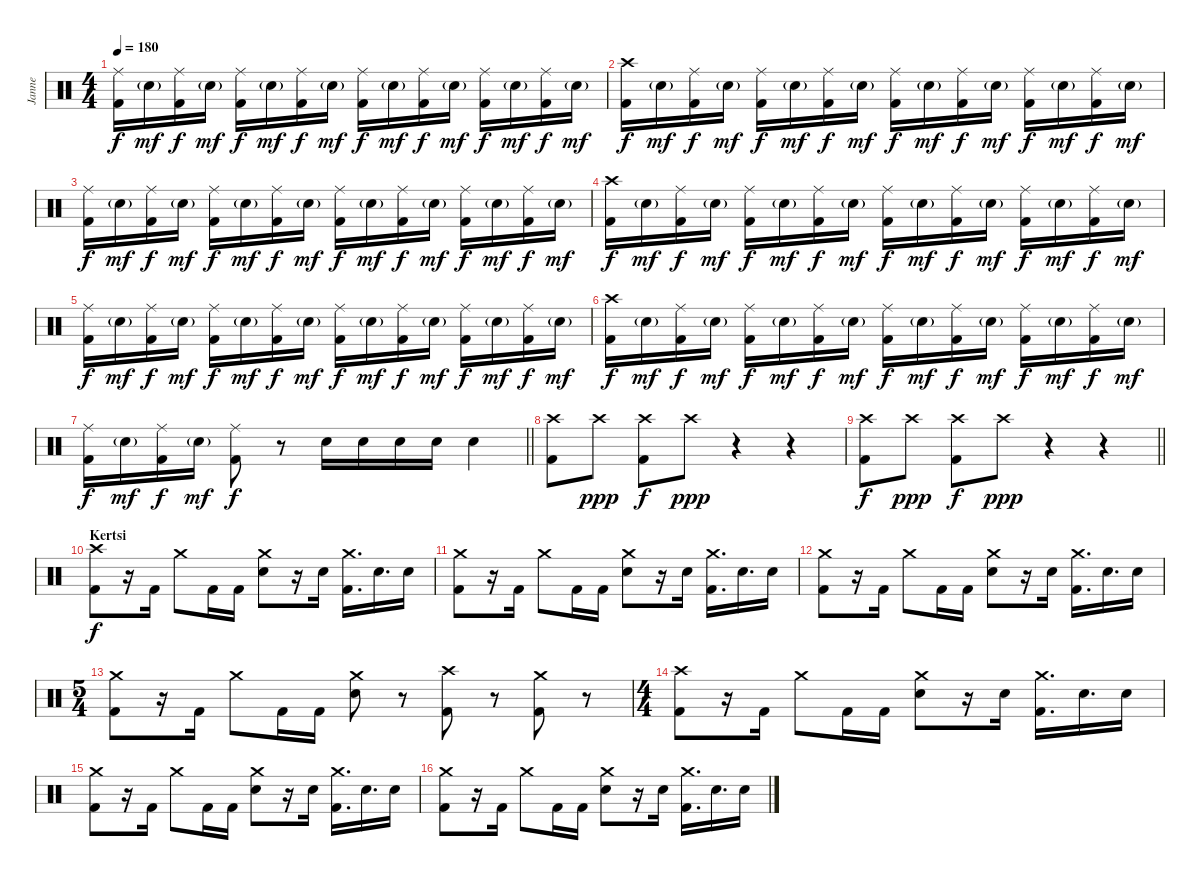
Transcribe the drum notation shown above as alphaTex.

\track ("Janne" "Janne") {instrument percussion}
\staff {score}
\articulation defaults
\ts (4 4)
\tempo 180
\clef neutral
\ks c
("Ride (middle)" "Kick (hit) 2").16{dy f} "Electric Snare (hit)"{g}.16{dy mf} ("Ride (middle)" "Kick (hit) 2").16{dy f} "Electric Snare (hit)"{g}.16{dy mf} ("Ride (middle)" "Kick (hit) 2").16{dy f} "Electric Snare (hit)"{g}.16{dy mf} ("Ride (middle)" "Kick (hit) 2").16{dy f} "Electric Snare (hit)"{g}.16{dy mf} ("Ride (middle)" "Kick (hit) 2").16{dy f} "Electric Snare (hit)"{g}.16{dy mf} ("Ride (middle)" "Kick (hit) 2").16{dy f} "Electric Snare (hit)"{g}.16{dy mf} ("Ride (middle)" "Kick (hit) 2").16{dy f} "Electric Snare (hit)"{g}.16{dy mf} ("Ride (middle)" "Kick (hit) 2").16{dy f} "Electric Snare (hit)"{g}.16{dy mf} |
("Crash high (hit)" "Kick (hit) 2").16{dy f} "Electric Snare (hit)"{g}.16{dy mf} ("Ride (middle)" "Kick (hit) 2").16{dy f} "Electric Snare (hit)"{g}.16{dy mf} ("Ride (middle)" "Kick (hit) 2").16{dy f} "Electric Snare (hit)"{g}.16{dy mf} ("Ride (middle)" "Kick (hit) 2").16{dy f} "Electric Snare (hit)"{g}.16{dy mf} ("Ride (middle)" "Kick (hit) 2").16{dy f} "Electric Snare (hit)"{g}.16{dy mf} ("Ride (middle)" "Kick (hit) 2").16{dy f} "Electric Snare (hit)"{g}.16{dy mf} ("Ride (middle)" "Kick (hit) 2").16{dy f} "Electric Snare (hit)"{g}.16{dy mf} ("Ride (middle)" "Kick (hit) 2").16{dy f} "Electric Snare (hit)"{g}.16{dy mf} |
("Ride (middle)" "Kick (hit) 2").16{dy f} "Electric Snare (hit)"{g}.16{dy mf} ("Ride (middle)" "Kick (hit) 2").16{dy f} "Electric Snare (hit)"{g}.16{dy mf} ("Ride (middle)" "Kick (hit) 2").16{dy f} "Electric Snare (hit)"{g}.16{dy mf} ("Ride (middle)" "Kick (hit) 2").16{dy f} "Electric Snare (hit)"{g}.16{dy mf} ("Ride (middle)" "Kick (hit) 2").16{dy f} "Electric Snare (hit)"{g}.16{dy mf} ("Ride (middle)" "Kick (hit) 2").16{dy f} "Electric Snare (hit)"{g}.16{dy mf} ("Ride (middle)" "Kick (hit) 2").16{dy f} "Electric Snare (hit)"{g}.16{dy mf} ("Ride (middle)" "Kick (hit) 2").16{dy f} "Electric Snare (hit)"{g}.16{dy mf} |
("Crash high (hit)" "Kick (hit) 2").16{dy f} "Electric Snare (hit)"{g}.16{dy mf} ("Ride (middle)" "Kick (hit) 2").16{dy f} "Electric Snare (hit)"{g}.16{dy mf} ("Ride (middle)" "Kick (hit) 2").16{dy f} "Electric Snare (hit)"{g}.16{dy mf} ("Ride (middle)" "Kick (hit) 2").16{dy f} "Electric Snare (hit)"{g}.16{dy mf} ("Ride (middle)" "Kick (hit) 2").16{dy f} "Electric Snare (hit)"{g}.16{dy mf} ("Ride (middle)" "Kick (hit) 2").16{dy f} "Electric Snare (hit)"{g}.16{dy mf} ("Ride (middle)" "Kick (hit) 2").16{dy f} "Electric Snare (hit)"{g}.16{dy mf} ("Ride (middle)" "Kick (hit) 2").16{dy f} "Electric Snare (hit)"{g}.16{dy mf} |
("Ride (middle)" "Kick (hit) 2").16{dy f} "Electric Snare (hit)"{g}.16{dy mf} ("Ride (middle)" "Kick (hit) 2").16{dy f} "Electric Snare (hit)"{g}.16{dy mf} ("Ride (middle)" "Kick (hit) 2").16{dy f} "Electric Snare (hit)"{g}.16{dy mf} ("Ride (middle)" "Kick (hit) 2").16{dy f} "Electric Snare (hit)"{g}.16{dy mf} ("Ride (middle)" "Kick (hit) 2").16{dy f} "Electric Snare (hit)"{g}.16{dy mf} ("Ride (middle)" "Kick (hit) 2").16{dy f} "Electric Snare (hit)"{g}.16{dy mf} ("Ride (middle)" "Kick (hit) 2").16{dy f} "Electric Snare (hit)"{g}.16{dy mf} ("Ride (middle)" "Kick (hit) 2").16{dy f} "Electric Snare (hit)"{g}.16{dy mf} |
("Crash high (hit)" "Kick (hit) 2").16{dy f} "Electric Snare (hit)"{g}.16{dy mf} ("Ride (middle)" "Kick (hit) 2").16{dy f} "Electric Snare (hit)"{g}.16{dy mf} ("Ride (middle)" "Kick (hit) 2").16{dy f} "Electric Snare (hit)"{g}.16{dy mf} ("Ride (middle)" "Kick (hit) 2").16{dy f} "Electric Snare (hit)"{g}.16{dy mf} ("Ride (middle)" "Kick (hit) 2").16{dy f} "Electric Snare (hit)"{g}.16{dy mf} ("Ride (middle)" "Kick (hit) 2").16{dy f} "Electric Snare (hit)"{g}.16{dy mf} ("Ride (middle)" "Kick (hit) 2").16{dy f} "Electric Snare (hit)"{g}.16{dy mf} ("Ride (middle)" "Kick (hit) 2").16{dy f} "Electric Snare (hit)"{g}.16{dy mf} |
\barLineRight lightlight
("Ride (middle)" "Kick (hit) 2").16{dy f} "Electric Snare (hit)"{g}.16{dy mf} ("Ride (middle)" "Kick (hit) 2").16{dy f} "Electric Snare (hit)"{g}.16{dy mf} ("Ride (middle)" "Kick (hit) 2").8{dy f} r.8 "Electric Snare (hit)".16 "Electric Snare (hit)".16 "Electric Snare (hit)".16 "Electric Snare (hit)".16 "Electric Snare (hit)".4 |
\section ("" "")
("Crash high (hit)" "Kick (hit) 2").8 "Crash high (hit)".8{dy ppp} ("Crash high (hit)" "Kick (hit) 2").8{dy f} "Crash high (hit)".8{dy ppp} r.4 r.4 |
\barLineRight lightlight
("Crash high (hit)" "Kick (hit) 2").8{dy f} "Crash high (hit)".8{dy ppp} ("Crash high (hit)" "Kick (hit) 2").8{dy f} "Crash high (hit)".8{dy ppp} r.4 r.4 |
\section ("" "Kertsi")
("Crash high (hit)" "Kick (hit) 2").8{dy f} r.16 "Kick (hit) 2".16 "Crash medium (hit)".8 "Kick (hit) 2".16 "Kick (hit) 2".16 ("Crash medium (hit)" "Electric Snare (hit)").8 r.16 "Electric Snare (hit)".16 ("Crash medium (hit)" "Kick (hit) 2").16{d} "Electric Snare (hit)".16{d} "Electric Snare (hit)".16 |
("Crash medium (hit)" "Kick (hit) 2").8 r.16 "Kick (hit) 2".16 "Crash medium (hit)".8 "Kick (hit) 2".16 "Kick (hit) 2".16 ("Crash medium (hit)" "Electric Snare (hit)").8 r.16 "Electric Snare (hit)".16 ("Crash medium (hit)" "Kick (hit) 2").16{d} "Electric Snare (hit)".16{d} "Electric Snare (hit)".16 |
("Crash medium (hit)" "Kick (hit) 2").8 r.16 "Kick (hit) 2".16 "Crash medium (hit)".8 "Kick (hit) 2".16 "Kick (hit) 2".16 ("Crash medium (hit)" "Electric Snare (hit)").8 r.16 "Electric Snare (hit)".16 ("Crash medium (hit)" "Kick (hit) 2").16{d} "Electric Snare (hit)".16{d} "Electric Snare (hit)".16 |
\ts (5 4)
("Crash medium (hit)" "Kick (hit) 2").8 r.16 "Kick (hit) 2".16 "Crash medium (hit)".8 "Kick (hit) 2".16 "Kick (hit) 2".16 ("Crash medium (hit)" "Electric Snare (hit)").8 r.8 ("Crash high (hit)" "Kick (hit) 2").8 r.8 ("Crash medium (hit)" "Kick (hit) 2").8 r.8 |
\ts (4 4)
("Crash high (hit)" "Kick (hit) 2").8 r.16 "Kick (hit) 2".16 "Crash medium (hit)".8 "Kick (hit) 2".16 "Kick (hit) 2".16 ("Crash medium (hit)" "Electric Snare (hit)").8 r.16 "Electric Snare (hit)".16 ("Crash medium (hit)" "Kick (hit) 2").16{d} "Electric Snare (hit)".16{d} "Electric Snare (hit)".16 |
("Crash medium (hit)" "Kick (hit) 2").8 r.16 "Kick (hit) 2".16 "Crash medium (hit)".8 "Kick (hit) 2".16 "Kick (hit) 2".16 ("Crash medium (hit)" "Electric Snare (hit)").8 r.16 "Electric Snare (hit)".16 ("Crash medium (hit)" "Kick (hit) 2").16{d} "Electric Snare (hit)".16{d} "Electric Snare (hit)".16 |
("Crash medium (hit)" "Kick (hit) 2").8 r.16 "Kick (hit) 2".16 "Crash medium (hit)".8 "Kick (hit) 2".16 "Kick (hit) 2".16 ("Crash medium (hit)" "Electric Snare (hit)").8 r.16 "Electric Snare (hit)".16 ("Crash medium (hit)" "Kick (hit) 2").16{d} "Electric Snare (hit)".16{d} "Electric Snare (hit)".16
